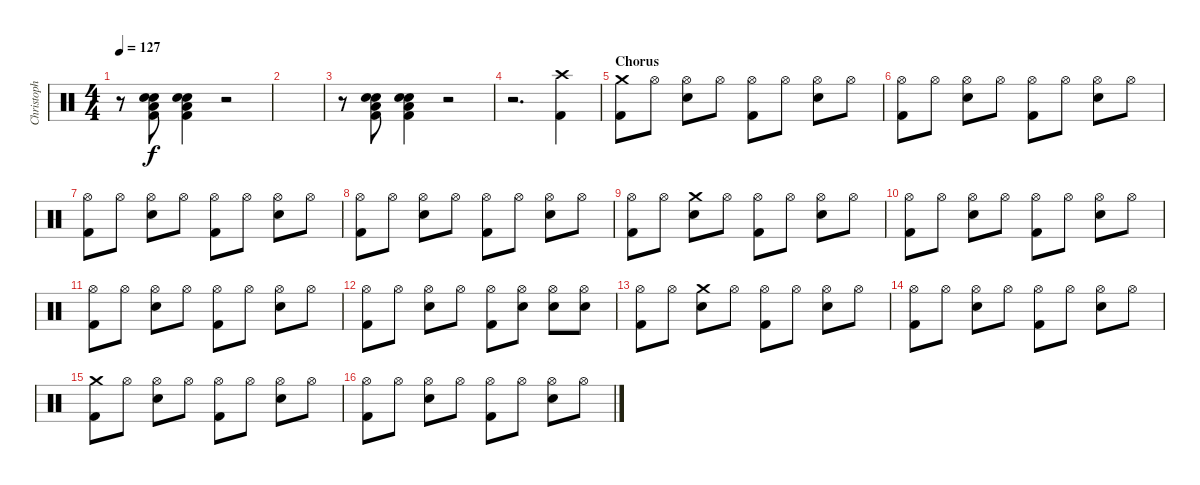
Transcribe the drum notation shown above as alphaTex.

\track ("Christoph Doom Schneider - Drums" "Christoph ") {instrument percussion}
\staff {score}
\articulation defaults
\ts (4 4)
\tempo 127
\clef neutral
\ks c
r.8{dy f} ("Electric Snare (hit)" "Kick (hit) 2" "Low Floor Tom (hit)" "Electric Snare (hit)").8 ("Electric Snare (hit)" "Kick (hit) 2" "Low Floor Tom (hit)" "Electric Snare (hit)").4 r.2 |
|
r.8 ("Electric Snare (hit)" "Kick (hit) 2" "Low Floor Tom (hit)" "Electric Snare (hit)").8 ("Electric Snare (hit)" "Kick (hit) 2" "Low Floor Tom (hit)" "Electric Snare (hit)").4 r.2 |
r.2{d} ("Crash high (hit)" "Kick (hit) 2").4 |
\section ("" "Chorus")
("Crash medium (hit)" "Kick (hit) 2").8 "Hi-Hat (open)".8 ("Hi-Hat (open)" "Electric Snare (hit)").8 "Hi-Hat (open)".8 ("Hi-Hat (open)" "Kick (hit) 2").8 "Hi-Hat (open)".8 ("Hi-Hat (open)" "Electric Snare (hit)").8 "Hi-Hat (open)".8 |
("Hi-Hat (open)" "Kick (hit) 2").8 "Hi-Hat (open)".8 ("Hi-Hat (open)" "Electric Snare (hit)").8 "Hi-Hat (open)".8 ("Hi-Hat (open)" "Kick (hit) 2").8 "Hi-Hat (open)".8 ("Hi-Hat (open)" "Electric Snare (hit)").8 "Hi-Hat (open)".8 |
("Hi-Hat (open)" "Kick (hit) 2").8 "Hi-Hat (open)".8 ("Hi-Hat (open)" "Electric Snare (hit)").8 "Hi-Hat (open)".8 ("Hi-Hat (open)" "Kick (hit) 2").8 "Hi-Hat (open)".8 ("Hi-Hat (open)" "Electric Snare (hit)").8 "Hi-Hat (open)".8 |
("Hi-Hat (open)" "Kick (hit) 2").8 "Hi-Hat (open)".8 ("Hi-Hat (open)" "Electric Snare (hit)").8 "Hi-Hat (open)".8 ("Hi-Hat (open)" "Kick (hit) 2").8 "Hi-Hat (open)".8 ("Hi-Hat (open)" "Electric Snare (hit)").8 "Hi-Hat (open)".8 |
("Hi-Hat (open)" "Kick (hit) 2").8 "Hi-Hat (open)".8 ("Crash medium (hit)" "Electric Snare (hit)").8 "Hi-Hat (open)".8 ("Hi-Hat (open)" "Kick (hit) 2").8 "Hi-Hat (open)".8 ("Hi-Hat (open)" "Electric Snare (hit)").8 "Hi-Hat (open)".8 |
("Hi-Hat (open)" "Kick (hit) 2").8 "Hi-Hat (open)".8 ("Hi-Hat (open)" "Electric Snare (hit)").8 "Hi-Hat (open)".8 ("Hi-Hat (open)" "Kick (hit) 2").8 "Hi-Hat (open)".8 ("Hi-Hat (open)" "Electric Snare (hit)").8 "Hi-Hat (open)".8 |
("Hi-Hat (open)" "Kick (hit) 2").8 "Hi-Hat (open)".8 ("Hi-Hat (open)" "Electric Snare (hit)").8 "Hi-Hat (open)".8 ("Hi-Hat (open)" "Kick (hit) 2").8 "Hi-Hat (open)".8 ("Hi-Hat (open)" "Electric Snare (hit)").8 "Hi-Hat (open)".8 |
("Hi-Hat (open)" "Kick (hit) 2").8 "Hi-Hat (open)".8 ("Hi-Hat (open)" "Electric Snare (hit)").8 "Hi-Hat (open)".8 ("Hi-Hat (open)" "Kick (hit) 2").8 ("Hi-Hat (open)" "Electric Snare (hit)").8 ("Hi-Hat (open)" "Electric Snare (hit)").8 ("Hi-Hat (open)" "Electric Snare (hit)").8 |
("Hi-Hat (open)" "Kick (hit) 2").8 "Hi-Hat (open)".8 ("Crash medium (hit)" "Electric Snare (hit)").8 "Hi-Hat (open)".8 ("Hi-Hat (open)" "Kick (hit) 2").8 "Hi-Hat (open)".8 ("Hi-Hat (open)" "Electric Snare (hit)").8 "Hi-Hat (open)".8 |
("Hi-Hat (open)" "Kick (hit) 2").8 "Hi-Hat (open)".8 ("Hi-Hat (open)" "Electric Snare (hit)").8 "Hi-Hat (open)".8 ("Hi-Hat (open)" "Kick (hit) 2").8 "Hi-Hat (open)".8 ("Hi-Hat (open)" "Electric Snare (hit)").8 "Hi-Hat (open)".8 |
("Crash medium (hit)" "Kick (hit) 2").8 "Hi-Hat (open)".8 ("Hi-Hat (open)" "Electric Snare (hit)").8 "Hi-Hat (open)".8 ("Hi-Hat (open)" "Kick (hit) 2").8 "Hi-Hat (open)".8 ("Hi-Hat (open)" "Electric Snare (hit)").8 "Hi-Hat (open)".8 |
("Hi-Hat (open)" "Kick (hit) 2").8 "Hi-Hat (open)".8 ("Hi-Hat (open)" "Electric Snare (hit)").8 "Hi-Hat (open)".8 ("Hi-Hat (open)" "Kick (hit) 2").8 "Hi-Hat (open)".8 ("Hi-Hat (open)" "Electric Snare (hit)").8 "Hi-Hat (open)".8
